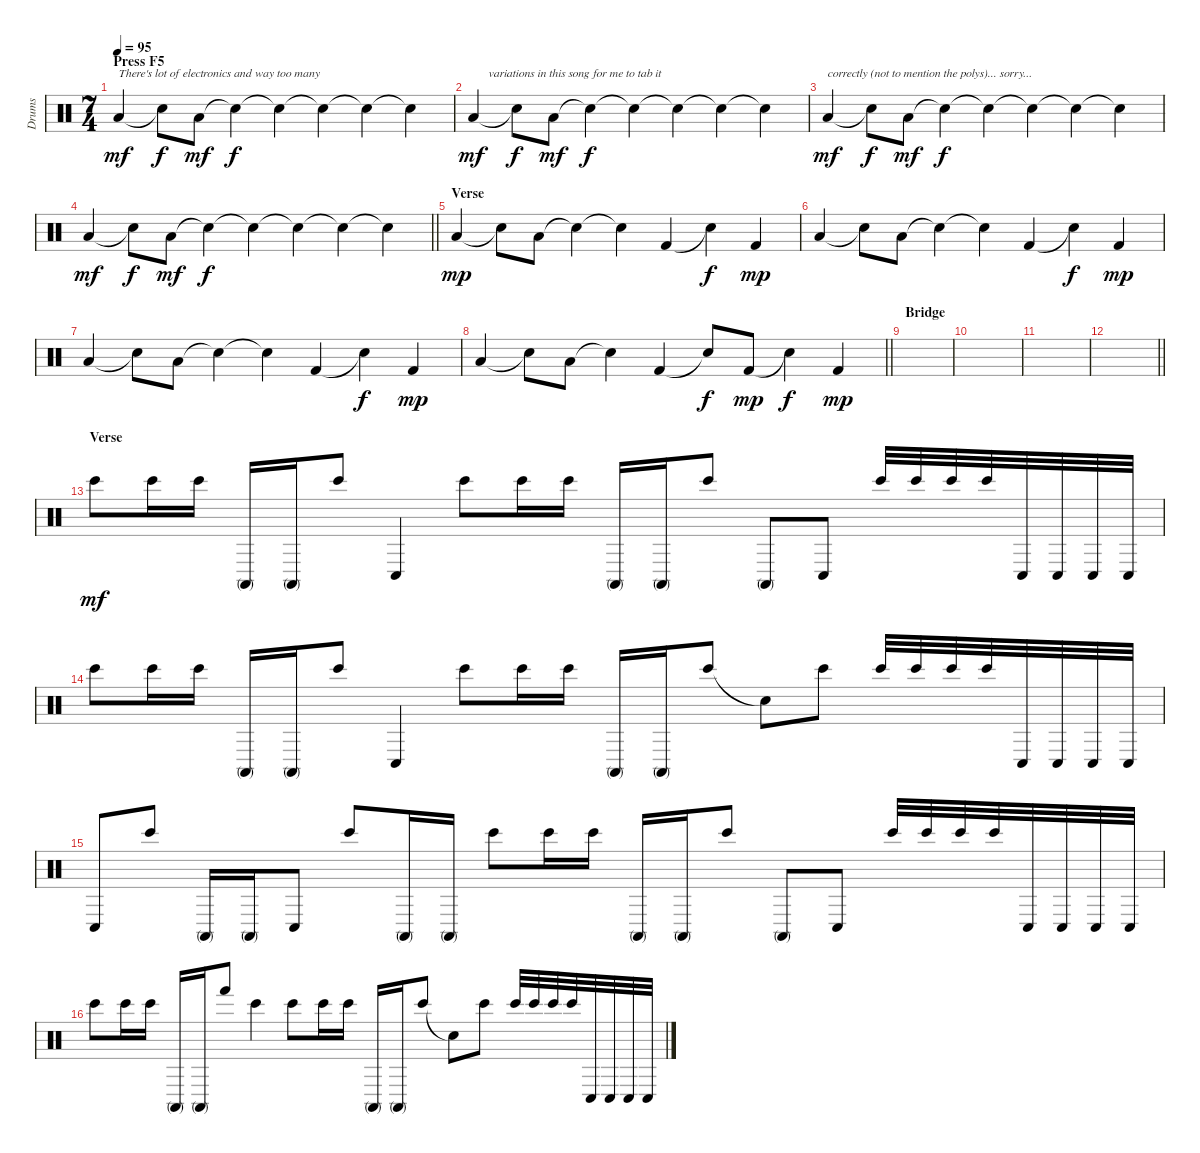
\track ("Drums" "Drums") {instrument percussion}
\staff {score}
\articulation defaults
\ts (7 4)
\section ("" "Press F5")
\tempo 95
\clef neutral
\ks c "Low Tom (hit)".4{txt "There's lot of electronics and way too many" dy mf} "Snare (hit)"{t}.8{dy f} "Low Floor Tom (hit)".8{dy mf} "Snare (hit)"{t}.4{dy f} "Snare (hit)"{t}.4 "Snare (hit)"{t}.4 "Snare (hit)"{t}.4 "Snare (hit)"{t}.4
|
"Low Tom (hit)".4{txt "     variations in this song for me to tab it" dy mf} "Snare (hit)"{t}.8{dy f} "Low Floor Tom (hit)".8{dy mf} "Snare (hit)"{t}.4{dy f} "Snare (hit)"{t}.4 "Snare (hit)"{t}.4 "Snare (hit)"{t}.4 "Snare (hit)"{t}.4 |
"Low Tom (hit)".4{txt "correctly (not to mention the polys)... sorry..." dy mf} "Snare (hit)"{t}.8{dy f} "Low Floor Tom (hit)".8{dy mf} "Snare (hit)"{t}.4{dy f} "Snare (hit)"{t}.4 "Snare (hit)"{t}.4 "Snare (hit)"{t}.4 "Snare (hit)"{t}.4 |
\barLineRight lightlight "Low Tom (hit)".4{dy mf} "Snare (hit)"{t}.8{dy f} "Low Floor Tom (hit)".8{dy mf} "Snare (hit)"{t}.4{dy f} "Snare (hit)"{t}.4 "Snare (hit)"{t}.4 "Snare (hit)"{t}.4 "Snare (hit)"{t}.4
|
\section ("" "Verse")
"Low Tom (hit)".4{dy mp} "Snare (hit)"{t}.8 "Low Floor Tom (hit)".8 "Snare (hit)"{t}.4 "Snare (hit)"{t}.4 "Kick (hit) 2".4 "Snare (hit)"{t}.4{dy f} "Kick (hit) 2".4{dy mp} |
"Low Tom (hit)".4 "Snare (hit)"{t}.8 "Low Floor Tom (hit)".8 "Snare (hit)"{t}.4 "Snare (hit)"{t}.4 "Kick (hit) 2".4 "Snare (hit)"{t}.4{dy f} "Kick (hit) 2".4{dy mp} |
"Low Tom (hit)".4 "Snare (hit)"{t}.8 "Low Floor Tom (hit)".8 "Snare (hit)"{t}.4 "Snare (hit)"{t}.4 "Kick (hit) 2".4 "Snare (hit)"{t}.4{dy f} "Kick (hit) 2".4{dy mp} |
\barLineRight lightlight "Low Tom (hit)".4 "Snare (hit)"{t}.8 "Low Floor Tom (hit)".8 "Snare (hit)"{t}.4 "Kick (hit) 2".4 "Snare (hit)"{t}.8{dy f} "Kick (hit) 2".8{dy mp} "Snare (hit)"{t}.4{dy f} "Kick (hit) 2".4{dy mp}
|
\section ("" "Bridge")
|
|
|
\barLineRight lightlight
|
\section ("" "Verse")
"Bongo High (hit)".8{dy mf} "Bongo High (hit)".16 "Bongo High (hit)".16 "Conga high (mute)".16 "Conga high (mute)".16 "Bongo High (hit)".8 "Conga low (hit)".4 "Bongo High (hit)".8 "Bongo High (hit)".16 "Bongo High (hit)".16 "Conga high (mute)".16 "Conga high (mute)".16 "Bongo High (hit)".8 "Conga high (mute)".8 "Conga low (hit)".8 "Bongo High (hit)".32 "Bongo High (hit)".32 "Bongo High (hit)".32 "Bongo High (hit)".32 "Conga low (hit)".32 "Conga low (hit)".32 "Conga low (hit)".32 "Conga low (hit)".32 |
"Bongo High (hit)".8 "Bongo High (hit)".16 "Bongo High (hit)".16 "Conga high (mute)".16 "Conga high (mute)".16 "Bongo High (hit)".8 "Conga low (hit)".4 "Bongo High (hit)".8 "Bongo High (hit)".16 "Bongo High (hit)".16 "Conga high (mute)".16 "Conga high (mute)".16 "Bongo High (hit)".8 "Snare (hit)"{t}.8 "Bongo High (hit)".8 "Bongo High (hit)".32 "Bongo High (hit)".32 "Bongo High (hit)".32 "Bongo High (hit)".32 "Conga low (hit)".32 "Conga low (hit)".32 "Conga low (hit)".32 "Conga low (hit)".32 |
"Conga low (hit)".8 "Bongo High (hit)".8 "Conga high (mute)".16 "Conga high (mute)".16 "Conga low (hit)".8 "Bongo High (hit)".8 "Conga high (mute)".16 "Conga high (mute)".16 "Bongo High (hit)".8 "Bongo High (hit)".16 "Bongo High (hit)".16 "Conga high (mute)".16 "Conga high (mute)".16 "Bongo High (hit)".8 "Conga high (mute)".8 "Conga low (hit)".8 "Bongo High (hit)".32 "Bongo High (hit)".32 "Bongo High (hit)".32 "Bongo High (hit)".32 "Conga low (hit)".32 "Conga low (hit)".32 "Conga low (hit)".32 "Conga low (hit)".32 |
"Bongo High (hit)".8 "Bongo High (hit)".16 "Bongo High (hit)".16 "Conga high (mute)".16 "Conga high (mute)".16 "Hand (hit)".8 "Bongo High (hit)".4 "Bongo High (hit)".8 "Bongo High (hit)".16 "Bongo High (hit)".16 "Conga high (mute)".16 "Conga high (mute)".16 "Bongo High (hit)".8 "Snare (hit)"{t}.8 "Bongo High (hit)".8 "Bongo High (hit)".32 "Bongo High (hit)".32 "Bongo High (hit)".32 "Bongo High (hit)".32 "Conga low (hit)".32 "Conga low (hit)".32 "Conga low (hit)".32 "Conga low (hit)".32
